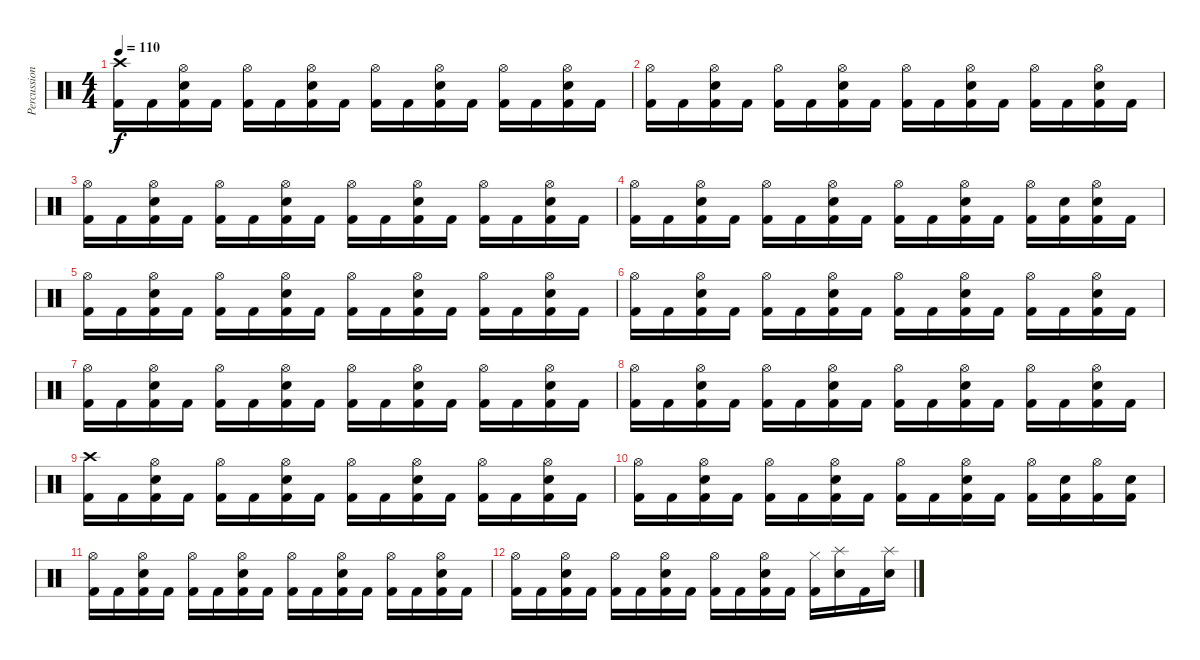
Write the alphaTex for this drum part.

\track ("Percussion" "Percussion") {instrument percussion}
\staff {score}
\articulation defaults
\ts (4 4)
\tempo 110
\clef neutral
\ks c
("Crash high (hit)" "Kick (hit) 2").16{dy f} "Kick (hit) 2".16 ("Hi-Hat (open)" "Electric Snare (hit)" "Kick (hit) 2").16 "Kick (hit) 2".16 ("Hi-Hat (open)" "Kick (hit) 2").16 "Kick (hit) 2".16 ("Hi-Hat (open)" "Electric Snare (hit)" "Kick (hit) 2").16 "Kick (hit) 2".16 ("Hi-Hat (open)" "Kick (hit) 2").16 "Kick (hit) 2".16 ("Hi-Hat (open)" "Electric Snare (hit)" "Kick (hit) 2").16 "Kick (hit) 2".16 ("Hi-Hat (open)" "Kick (hit) 2").16 "Kick (hit) 2".16 ("Hi-Hat (open)" "Electric Snare (hit)" "Kick (hit) 2").16 "Kick (hit) 2".16 |
("Hi-Hat (open)" "Kick (hit) 2").16 "Kick (hit) 2".16 ("Hi-Hat (open)" "Electric Snare (hit)" "Kick (hit) 2").16 "Kick (hit) 2".16 ("Hi-Hat (open)" "Kick (hit) 2").16 "Kick (hit) 2".16 ("Hi-Hat (open)" "Electric Snare (hit)" "Kick (hit) 2").16 "Kick (hit) 2".16 ("Hi-Hat (open)" "Kick (hit) 2").16 "Kick (hit) 2".16 ("Hi-Hat (open)" "Electric Snare (hit)" "Kick (hit) 2").16 "Kick (hit) 2".16 ("Hi-Hat (open)" "Kick (hit) 2").16 "Kick (hit) 2".16 ("Hi-Hat (open)" "Electric Snare (hit)" "Kick (hit) 2").16 "Kick (hit) 2".16 |
("Hi-Hat (open)" "Kick (hit) 2").16 "Kick (hit) 2".16 ("Hi-Hat (open)" "Electric Snare (hit)" "Kick (hit) 2").16 "Kick (hit) 2".16 ("Hi-Hat (open)" "Kick (hit) 2").16 "Kick (hit) 2".16 ("Hi-Hat (open)" "Electric Snare (hit)" "Kick (hit) 2").16 "Kick (hit) 2".16 ("Hi-Hat (open)" "Kick (hit) 2").16 "Kick (hit) 2".16 ("Hi-Hat (open)" "Electric Snare (hit)" "Kick (hit) 2").16 "Kick (hit) 2".16 ("Hi-Hat (open)" "Kick (hit) 2").16 "Kick (hit) 2".16 ("Hi-Hat (open)" "Electric Snare (hit)" "Kick (hit) 2").16 "Kick (hit) 2".16 |
("Hi-Hat (open)" "Kick (hit) 2").16 "Kick (hit) 2".16 ("Hi-Hat (open)" "Electric Snare (hit)" "Kick (hit) 2").16 "Kick (hit) 2".16 ("Hi-Hat (open)" "Kick (hit) 2").16 "Kick (hit) 2".16 ("Hi-Hat (open)" "Electric Snare (hit)" "Kick (hit) 2").16 "Kick (hit) 2".16 ("Hi-Hat (open)" "Kick (hit) 2").16 "Kick (hit) 2".16 ("Hi-Hat (open)" "Electric Snare (hit)" "Kick (hit) 2").16 "Kick (hit) 2".16 ("Hi-Hat (open)" "Kick (hit) 2").16 ("Electric Snare (hit)" "Kick (hit) 2").16 ("Hi-Hat (open)" "Electric Snare (hit)" "Kick (hit) 2").16 "Kick (hit) 2".16 |
("Hi-Hat (open)" "Kick (hit) 2").16 "Kick (hit) 2".16 ("Hi-Hat (open)" "Electric Snare (hit)" "Kick (hit) 2").16 "Kick (hit) 2".16 ("Hi-Hat (open)" "Kick (hit) 2").16 "Kick (hit) 2".16 ("Hi-Hat (open)" "Electric Snare (hit)" "Kick (hit) 2").16 "Kick (hit) 2".16 ("Hi-Hat (open)" "Kick (hit) 2").16 "Kick (hit) 2".16 ("Hi-Hat (open)" "Electric Snare (hit)" "Kick (hit) 2").16 "Kick (hit) 2".16 ("Hi-Hat (open)" "Kick (hit) 2").16 "Kick (hit) 2".16 ("Hi-Hat (open)" "Electric Snare (hit)" "Kick (hit) 2").16 "Kick (hit) 2".16 |
("Hi-Hat (open)" "Kick (hit) 2").16 "Kick (hit) 2".16 ("Hi-Hat (open)" "Electric Snare (hit)" "Kick (hit) 2").16 "Kick (hit) 2".16 ("Hi-Hat (open)" "Kick (hit) 2").16 "Kick (hit) 2".16 ("Hi-Hat (open)" "Electric Snare (hit)" "Kick (hit) 2").16 "Kick (hit) 2".16 ("Hi-Hat (open)" "Kick (hit) 2").16 "Kick (hit) 2".16 ("Hi-Hat (open)" "Electric Snare (hit)" "Kick (hit) 2").16 "Kick (hit) 2".16 ("Hi-Hat (open)" "Kick (hit) 2").16 "Kick (hit) 2".16 ("Hi-Hat (open)" "Electric Snare (hit)" "Kick (hit) 2").16 "Kick (hit) 2".16 |
("Hi-Hat (open)" "Kick (hit) 2").16 "Kick (hit) 2".16 ("Hi-Hat (open)" "Electric Snare (hit)" "Kick (hit) 2").16 "Kick (hit) 2".16 ("Hi-Hat (open)" "Kick (hit) 2").16 "Kick (hit) 2".16 ("Hi-Hat (open)" "Electric Snare (hit)" "Kick (hit) 2").16 "Kick (hit) 2".16 ("Hi-Hat (open)" "Kick (hit) 2").16 "Kick (hit) 2".16 ("Hi-Hat (open)" "Electric Snare (hit)" "Kick (hit) 2").16 "Kick (hit) 2".16 ("Hi-Hat (open)" "Kick (hit) 2").16 "Kick (hit) 2".16 ("Hi-Hat (open)" "Electric Snare (hit)" "Kick (hit) 2").16 "Kick (hit) 2".16 |
("Hi-Hat (open)" "Kick (hit) 2").16 "Kick (hit) 2".16 ("Hi-Hat (open)" "Electric Snare (hit)" "Kick (hit) 2").16 "Kick (hit) 2".16 ("Hi-Hat (open)" "Kick (hit) 2").16 "Kick (hit) 2".16 ("Hi-Hat (open)" "Electric Snare (hit)" "Kick (hit) 2").16 "Kick (hit) 2".16 ("Hi-Hat (open)" "Kick (hit) 2").16 "Kick (hit) 2".16 ("Hi-Hat (open)" "Electric Snare (hit)" "Kick (hit) 2").16 "Kick (hit) 2".16 ("Hi-Hat (open)" "Kick (hit) 2").16 "Kick (hit) 2".16 ("Hi-Hat (open)" "Electric Snare (hit)" "Kick (hit) 2").16 "Kick (hit) 2".16 |
("Crash high (hit)" "Kick (hit) 2").16 "Kick (hit) 2".16 ("Hi-Hat (open)" "Electric Snare (hit)" "Kick (hit) 2").16 "Kick (hit) 2".16 ("Hi-Hat (open)" "Kick (hit) 2").16 "Kick (hit) 2".16 ("Hi-Hat (open)" "Electric Snare (hit)" "Kick (hit) 2").16 "Kick (hit) 2".16 ("Hi-Hat (open)" "Kick (hit) 2").16 "Kick (hit) 2".16 ("Hi-Hat (open)" "Electric Snare (hit)" "Kick (hit) 2").16 "Kick (hit) 2".16 ("Hi-Hat (open)" "Kick (hit) 2").16 "Kick (hit) 2".16 ("Hi-Hat (open)" "Electric Snare (hit)" "Kick (hit) 2").16 "Kick (hit) 2".16 |
("Hi-Hat (open)" "Kick (hit) 2").16 "Kick (hit) 2".16 ("Hi-Hat (open)" "Electric Snare (hit)" "Kick (hit) 2").16 "Kick (hit) 2".16 ("Hi-Hat (open)" "Kick (hit) 2").16 "Kick (hit) 2".16 ("Hi-Hat (open)" "Electric Snare (hit)" "Kick (hit) 2").16 "Kick (hit) 2".16 ("Hi-Hat (open)" "Kick (hit) 2").16 "Kick (hit) 2".16 ("Hi-Hat (open)" "Electric Snare (hit)" "Kick (hit) 2").16 "Kick (hit) 2".16 ("Hi-Hat (open)" "Kick (hit) 2").16 ("Electric Snare (hit)" "Kick (hit) 2").16 ("Hi-Hat (open)" "Kick (hit) 2").16 ("Electric Snare (hit)" "Kick (hit) 2").16 |
("Hi-Hat (open)" "Kick (hit) 2").16 "Kick (hit) 2".16 ("Hi-Hat (open)" "Electric Snare (hit)" "Kick (hit) 2").16 "Kick (hit) 2".16 ("Hi-Hat (open)" "Kick (hit) 2").16 "Kick (hit) 2".16 ("Hi-Hat (open)" "Electric Snare (hit)" "Kick (hit) 2").16 "Kick (hit) 2".16 ("Hi-Hat (open)" "Kick (hit) 2").16 "Kick (hit) 2".16 ("Hi-Hat (open)" "Electric Snare (hit)" "Kick (hit) 2").16 "Kick (hit) 2".16 ("Hi-Hat (open)" "Kick (hit) 2").16 "Kick (hit) 2".16 ("Hi-Hat (open)" "Electric Snare (hit)" "Kick (hit) 2").16 "Kick (hit) 2".16 |
("Hi-Hat (open)" "Kick (hit) 2").16 "Kick (hit) 2".16 ("Hi-Hat (open)" "Electric Snare (hit)" "Kick (hit) 2").16 "Kick (hit) 2".16 ("Hi-Hat (open)" "Kick (hit) 2").16 "Kick (hit) 2".16 ("Hi-Hat (open)" "Electric Snare (hit)" "Kick (hit) 2").16 "Kick (hit) 2".16 ("Hi-Hat (open)" "Kick (hit) 2").16 "Kick (hit) 2".16 ("Hi-Hat (open)" "Electric Snare (hit)" "Kick (hit) 2").16 "Kick (hit) 2".16 ("Hi-Hat (closed)" "Kick (hit) 2").16 ("Splash (hit)" "Electric Snare (hit)").16 "Kick (hit) 2".16 ("Splash (hit)" "Electric Snare (hit)").16
